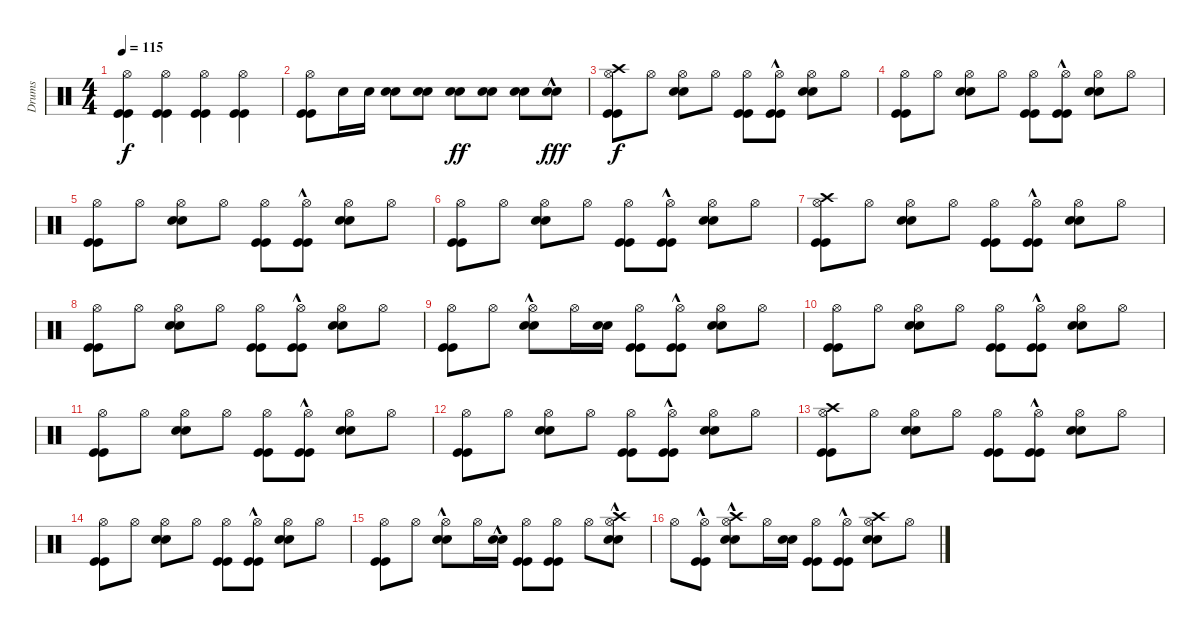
\track ("Drums" "Drums") {instrument percussion}
\staff {score}
\articulation defaults
\ts (4 4)
\tempo 115
\clef neutral
\ks c
("Kick (hit)" "Kick (hit)" "Hi-Hat (open)").4{dy f} ("Kick (hit)" "Kick (hit)" "Hi-Hat (open)").4 ("Kick (hit)" "Kick (hit)" "Hi-Hat (open)").4 ("Kick (hit)" "Kick (hit)" "Hi-Hat (open)").4 |
("Kick (hit)" "Kick (hit)" "Hi-Hat (open)").8 "Snare (hit) 2".16 "Snare (hit) 2".16 ("Snare (hit) 2" "Snare (hit) 2").8 ("Snare (hit) 2" "Snare (hit) 2").8 ("Snare (hit) 2" "Snare (hit) 2").8{dy ff} ("Snare (hit) 2" "Snare (hit) 2").8 ("Snare (hit) 2" "Snare (hit) 2").8 ("Snare (hit) 2"{hac} "Snare (hit) 2"{hac}).8{dy fff} |
("Kick (hit)" "Kick (hit)" "Hi-Hat (open)" "Crash high (hit)").8{dy f} "Hi-Hat (open)".8 ("Snare (hit) 2" "Snare (hit) 2" "Hi-Hat (open)").8 "Hi-Hat (open)".8 ("Kick (hit)" "Kick (hit)" "Hi-Hat (open)").8 ("Kick (hit)"{hac} "Kick (hit)"{hac} "Hi-Hat (open)").8 ("Snare (hit) 2" "Snare (hit) 2" "Hi-Hat (open)").8 "Hi-Hat (open)".8 |
("Kick (hit)" "Kick (hit)" "Hi-Hat (open)").8 "Hi-Hat (open)".8 ("Snare (hit) 2" "Snare (hit) 2" "Hi-Hat (open)").8 "Hi-Hat (open)".8 ("Kick (hit)" "Kick (hit)" "Hi-Hat (open)").8 ("Kick (hit)"{hac} "Kick (hit)"{hac} "Hi-Hat (open)").8 ("Snare (hit) 2" "Snare (hit) 2" "Hi-Hat (open)").8 "Hi-Hat (open)".8 |
("Kick (hit)" "Kick (hit)" "Hi-Hat (open)").8 "Hi-Hat (open)".8 ("Snare (hit) 2" "Snare (hit) 2" "Hi-Hat (open)").8 "Hi-Hat (open)".8 ("Kick (hit)" "Kick (hit)" "Hi-Hat (open)").8 ("Kick (hit)"{hac} "Kick (hit)"{hac} "Hi-Hat (open)").8 ("Snare (hit) 2" "Snare (hit) 2" "Hi-Hat (open)").8 "Hi-Hat (open)".8 |
("Kick (hit)" "Kick (hit)" "Hi-Hat (open)").8 "Hi-Hat (open)".8 ("Snare (hit) 2" "Snare (hit) 2" "Hi-Hat (open)").8 "Hi-Hat (open)".8 ("Kick (hit)" "Kick (hit)" "Hi-Hat (open)").8 ("Kick (hit)"{hac} "Kick (hit)"{hac} "Hi-Hat (open)").8 ("Snare (hit) 2" "Snare (hit) 2" "Hi-Hat (open)").8 "Hi-Hat (open)".8 |
("Kick (hit)" "Kick (hit)" "Hi-Hat (open)" "Crash high (hit)").8 "Hi-Hat (open)".8 ("Snare (hit) 2" "Snare (hit) 2" "Hi-Hat (open)").8 "Hi-Hat (open)".8 ("Kick (hit)" "Kick (hit)" "Hi-Hat (open)").8 ("Kick (hit)"{hac} "Kick (hit)"{hac} "Hi-Hat (open)").8 ("Snare (hit) 2" "Snare (hit) 2" "Hi-Hat (open)").8 "Hi-Hat (open)".8 |
("Kick (hit)" "Kick (hit)" "Hi-Hat (open)").8 "Hi-Hat (open)".8 ("Snare (hit) 2" "Snare (hit) 2" "Hi-Hat (open)").8 "Hi-Hat (open)".8 ("Kick (hit)" "Kick (hit)" "Hi-Hat (open)").8 ("Kick (hit)"{hac} "Kick (hit)"{hac} "Hi-Hat (open)").8 ("Snare (hit) 2" "Snare (hit) 2" "Hi-Hat (open)").8 "Hi-Hat (open)".8 |
("Kick (hit)" "Kick (hit)" "Hi-Hat (open)").8 "Hi-Hat (open)".8 ("Snare (hit) 2"{hac} "Snare (hit) 2"{hac} "Hi-Hat (open)").8 "Hi-Hat (open)".16 ("Snare (hit) 2" "Snare (hit) 2").16 ("Kick (hit)" "Kick (hit)" "Hi-Hat (open)").8 ("Kick (hit)"{hac} "Kick (hit)"{hac} "Hi-Hat (open)").8 ("Snare (hit) 2" "Snare (hit) 2" "Hi-Hat (open)").8 "Hi-Hat (open)".8 |
("Kick (hit)" "Kick (hit)" "Hi-Hat (open)").8 "Hi-Hat (open)".8 ("Snare (hit) 2" "Snare (hit) 2" "Hi-Hat (open)").8 "Hi-Hat (open)".8 ("Kick (hit)" "Kick (hit)" "Hi-Hat (open)").8 ("Kick (hit)"{hac} "Kick (hit)"{hac} "Hi-Hat (open)").8 ("Snare (hit) 2" "Snare (hit) 2" "Hi-Hat (open)").8 "Hi-Hat (open)".8 |
("Kick (hit)" "Kick (hit)" "Hi-Hat (open)").8 "Hi-Hat (open)".8 ("Snare (hit) 2" "Snare (hit) 2" "Hi-Hat (open)").8 "Hi-Hat (open)".8 ("Kick (hit)" "Kick (hit)" "Hi-Hat (open)").8 ("Kick (hit)"{hac} "Kick (hit)"{hac} "Hi-Hat (open)").8 ("Snare (hit) 2" "Snare (hit) 2" "Hi-Hat (open)").8 "Hi-Hat (open)".8 |
("Kick (hit)" "Kick (hit)" "Hi-Hat (open)").8 "Hi-Hat (open)".8 ("Snare (hit) 2" "Snare (hit) 2" "Hi-Hat (open)").8 "Hi-Hat (open)".8 ("Kick (hit)" "Kick (hit)" "Hi-Hat (open)").8 ("Kick (hit)"{hac} "Kick (hit)"{hac} "Hi-Hat (open)").8 ("Snare (hit) 2" "Snare (hit) 2" "Hi-Hat (open)").8 "Hi-Hat (open)".8 |
("Kick (hit)" "Kick (hit)" "Hi-Hat (open)" "Crash high (hit)").8 "Hi-Hat (open)".8 ("Snare (hit) 2" "Snare (hit) 2" "Hi-Hat (open)").8 "Hi-Hat (open)".8 ("Kick (hit)" "Kick (hit)" "Hi-Hat (open)").8 ("Kick (hit)"{hac} "Kick (hit)"{hac} "Hi-Hat (open)").8 ("Snare (hit) 2" "Snare (hit) 2" "Hi-Hat (open)").8 "Hi-Hat (open)".8 |
("Kick (hit)" "Kick (hit)" "Hi-Hat (open)").8 "Hi-Hat (open)".8 ("Snare (hit) 2" "Snare (hit) 2" "Hi-Hat (open)").8 "Hi-Hat (open)".8 ("Kick (hit)" "Kick (hit)" "Hi-Hat (open)").8 ("Kick (hit)"{hac} "Kick (hit)"{hac} "Hi-Hat (open)").8 ("Snare (hit) 2" "Snare (hit) 2" "Hi-Hat (open)").8 "Hi-Hat (open)".8 |
("Kick (hit)" "Kick (hit)" "Hi-Hat (open)").8 "Hi-Hat (open)".8 ("Snare (hit) 2"{hac} "Snare (hit) 2"{hac} "Hi-Hat (open)").8 "Hi-Hat (open)".16 ("Snare (hit) 2"{hac} "Snare (hit) 2"{hac}).16 ("Kick (hit)" "Kick (hit)" "Hi-Hat (open)").8 ("Kick (hit)" "Kick (hit)" "Hi-Hat (open)").8 "Hi-Hat (open)".8 ("Snare (hit) 2"{hac} "Snare (hit) 2"{hac} "Hi-Hat (open)" "Crash high (hit)"{hac}).8 |
"Hi-Hat (open)".8 ("Kick (hit)"{hac} "Kick (hit)"{hac} "Hi-Hat (open)").8 ("Snare (hit) 2"{hac} "Snare (hit) 2"{hac} "Hi-Hat (open)" "Crash high (hit)").8 "Hi-Hat (open)".16 ("Snare (hit) 2" "Snare (hit) 2").16 ("Kick (hit)" "Kick (hit)" "Hi-Hat (open)").8 ("Kick (hit)"{hac} "Kick (hit)"{hac} "Hi-Hat (open)").8 ("Snare (hit) 2" "Snare (hit) 2" "Hi-Hat (open)" "Crash high (hit)").8 "Hi-Hat (open)".8
